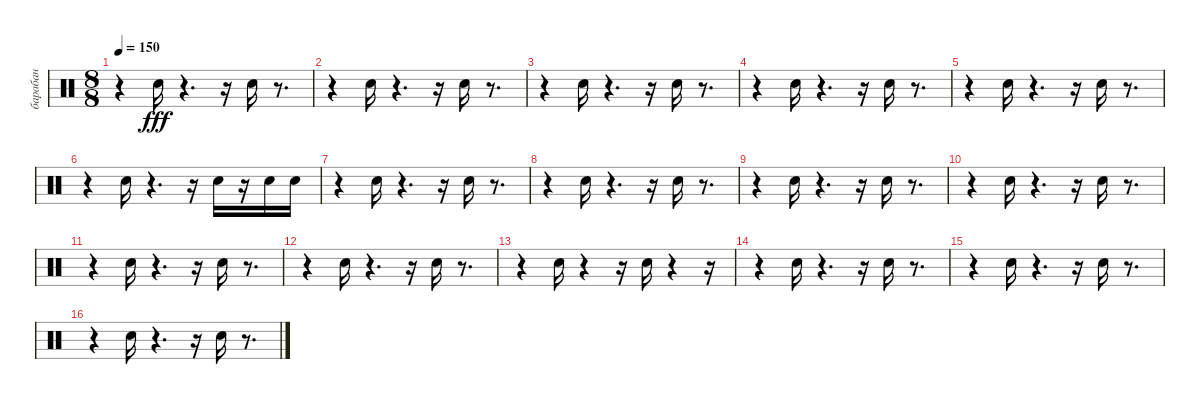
\track ("барабан" "барабан") {instrument percussion}
\staff {score}
\articulation defaults
\ts (8 8)
\tempo 150
\clef neutral
\ks c
r.4{dy fff} "Snare (hit) 2".16 r.4{d} r.16 "Snare (hit) 2".16 r.8{d} |
r.4 "Snare (hit) 2".16 r.4{d} r.16 "Snare (hit) 2".16 r.8{d} |
r.4 "Snare (hit) 2".16 r.4{d} r.16 "Snare (hit) 2".16 r.8{d} |
r.4 "Snare (hit) 2".16 r.4{d} r.16 "Snare (hit) 2".16 r.8{d} |
r.4 "Snare (hit) 2".16 r.4{d} r.16 "Snare (hit) 2".16 r.8{d} |
r.4 "Snare (hit) 2".16 r.4{d} r.16 "Snare (hit) 2".16 r.16 "Snare (hit) 2".16 "Snare (hit) 2".16 |
r.4 "Snare (hit) 2".16 r.4{d} r.16 "Snare (hit) 2".16 r.8{d} |
r.4 "Snare (hit) 2".16 r.4{d} r.16 "Snare (hit) 2".16 r.8{d} |
r.4 "Snare (hit) 2".16 r.4{d} r.16 "Snare (hit) 2".16 r.8{d} |
r.4 "Snare (hit) 2".16 r.4{d} r.16 "Snare (hit) 2".16 r.8{d} |
r.4 "Snare (hit) 2".16 r.4{d} r.16 "Snare (hit) 2".16 r.8{d} |
r.4 "Snare (hit) 2".16 r.4{d} r.16 "Snare (hit) 2".16 r.8{d} |
r.4 "Snare (hit) 2".16 r.4 r.16 "Snare (hit) 2".16 r.4 r.16 |
r.4 "Snare (hit) 2".16 r.4{d} r.16 "Snare (hit) 2".16 r.8{d} |
r.4 "Snare (hit) 2".16 r.4{d} r.16 "Snare (hit) 2".16 r.8{d} |
r.4 "Snare (hit) 2".16 r.4{d} r.16 "Snare (hit) 2".16 r.8{d}
